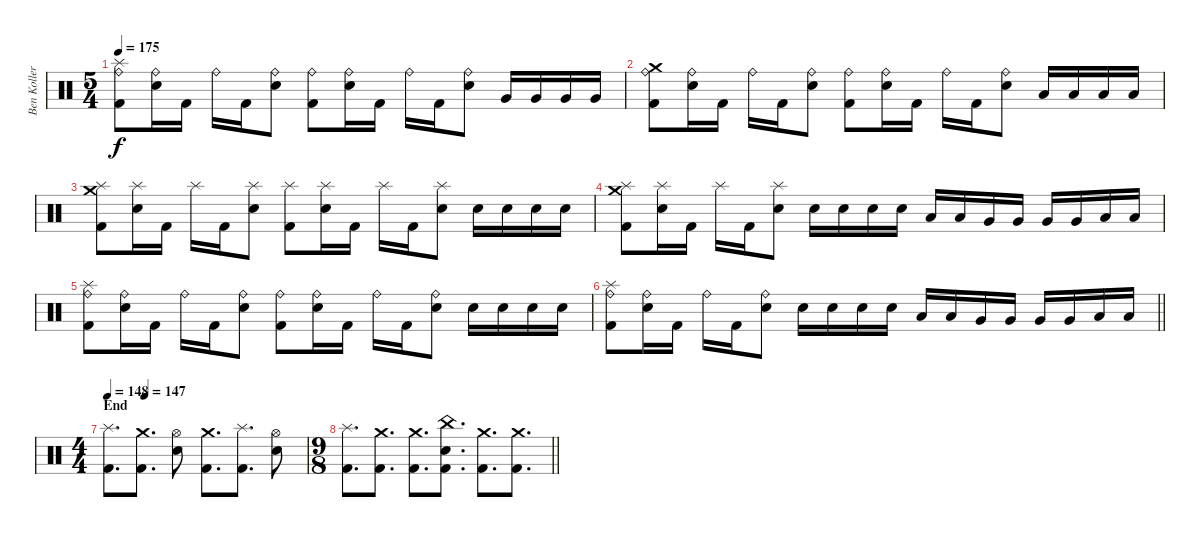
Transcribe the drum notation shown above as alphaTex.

\track ("Ben Koller" "Ben Koller") {instrument percussion}
\staff {score}
\articulation defaults
\ts (5 4)
\tempo 175
\clef neutral
\ks c
("Splash (hit)" "Ride (bell)" "Kick (hit) 2").8{dy f} ("Ride (bell)" "Electric Snare (hit)").16 "Kick (hit) 2".16 "Ride (bell)".16 "Kick (hit) 2".16 ("Ride (bell)" "Electric Snare (hit)").8 ("Ride (bell)" "Kick (hit) 2").8 ("Ride (bell)" "Electric Snare (hit)").16 "Kick (hit) 2".16 "Ride (bell)".16 "Kick (hit) 2".16 ("Ride (bell)" "Electric Snare (hit)").8 "Very Low Tom (hit)".16 "Very Low Tom (hit)".16 "Very Low Tom (hit)".16 "Very Low Tom (hit)".16 |
("Crash medium (hit)" "Ride (bell)" "Kick (hit) 2").8 ("Ride (bell)" "Electric Snare (hit)").16 "Kick (hit) 2".16 "Ride (bell)".16 "Kick (hit) 2".16 ("Ride (bell)" "Electric Snare (hit)").8 ("Ride (bell)" "Kick (hit) 2").8 ("Ride (bell)" "Electric Snare (hit)").16 "Kick (hit) 2".16 "Ride (bell)".16 "Kick (hit) 2".16 ("Ride (bell)" "Electric Snare (hit)").8 "Low Floor Tom (hit)".16 "Low Floor Tom (hit)".16 "Low Floor Tom (hit)".16 "Low Floor Tom (hit)".16 |
("Crash medium (hit)" "Splash (hit)" "Kick (hit) 2").8 ("Splash (hit)" "Electric Snare (hit)").16 "Kick (hit) 2".16 "Splash (hit)".16 "Kick (hit) 2".16 ("Splash (hit)" "Electric Snare (hit)").8 ("Splash (hit)" "Kick (hit) 2").8 ("Splash (hit)" "Electric Snare (hit)").16 "Kick (hit) 2".16 "Splash (hit)".16 "Kick (hit) 2".16 ("Splash (hit)" "Electric Snare (hit)").8 "Electric Snare (hit)".16 "Electric Snare (hit)".16 "Electric Snare (hit)".16 "Electric Snare (hit)".16 |
("Crash medium (hit)" "Splash (hit)" "Kick (hit) 2").8 ("Splash (hit)" "Electric Snare (hit)").16 "Kick (hit) 2".16 "Splash (hit)".16 "Kick (hit) 2".16 ("Splash (hit)" "Electric Snare (hit)").8 "Electric Snare (hit)".16 "Electric Snare (hit)".16 "Electric Snare (hit)".16 "Electric Snare (hit)".16 "Low Tom (hit)".16 "Low Tom (hit)".16 "Very Low Tom (hit)".16 "Very Low Tom (hit)".16 "Very Low Tom (hit)".16 "Very Low Tom (hit)".16 "Low Floor Tom (hit)".16 "Low Floor Tom (hit)".16 |
("Splash (hit)" "Ride (bell)" "Kick (hit) 2").8 ("Ride (bell)" "Electric Snare (hit)").16 "Kick (hit) 2".16 "Ride (bell)".16 "Kick (hit) 2".16 ("Ride (bell)" "Electric Snare (hit)").8 ("Ride (bell)" "Kick (hit) 2").8 ("Ride (bell)" "Electric Snare (hit)").16 "Kick (hit) 2".16 "Ride (bell)".16 "Kick (hit) 2".16 ("Ride (bell)" "Electric Snare (hit)").8 "Electric Snare (hit)".16 "Electric Snare (hit)".16 "Electric Snare (hit)".16 "Electric Snare (hit)".16 |
\barLineRight lightlight
("Splash (hit)" "Ride (bell)" "Kick (hit) 2").8 ("Ride (bell)" "Electric Snare (hit)").16 "Kick (hit) 2".16 "Ride (bell)".16 "Kick (hit) 2".16 ("Ride (bell)" "Electric Snare (hit)").8 "Electric Snare (hit)".16 "Electric Snare (hit)".16 "Electric Snare (hit)".16 "Electric Snare (hit)".16 "Low Tom (hit)".16 "Low Tom (hit)".16 "Very Low Tom (hit)".16 "Very Low Tom (hit)".16 "Very Low Tom (hit)".16 "Very Low Tom (hit)".16 "Low Floor Tom (hit)".16 "Low Floor Tom (hit)".16 |
\ts (4 4)
\section ("" "End")
\tempo 148
\tempo (147 0.1875)
("Splash (hit)" "Kick (hit) 2").8{d} ("Crash medium (hit)" "Kick (hit) 2").8{d} ("Hi-Hat (open)" "Electric Snare (hit)").8 ("Crash medium (hit)" "Kick (hit) 2").8{d} ("Splash (hit)" "Kick (hit) 2").8{d} ("Hi-Hat (open)" "Electric Snare (hit)").8 |
\ts (9 8)
\barLineRight lightlight
("Splash (hit)" "Kick (hit) 2").8{d} ("Crash medium (hit)" "Kick (hit) 2").8{d} ("Crash medium (hit)" "Kick (hit) 2").8{d} ("China (hit)" "Electric Snare (hit)" "Kick (hit) 2").8{d} ("Crash medium (hit)" "Kick (hit) 2").8{d} ("Crash medium (hit)" "Kick (hit) 2").8{d}
